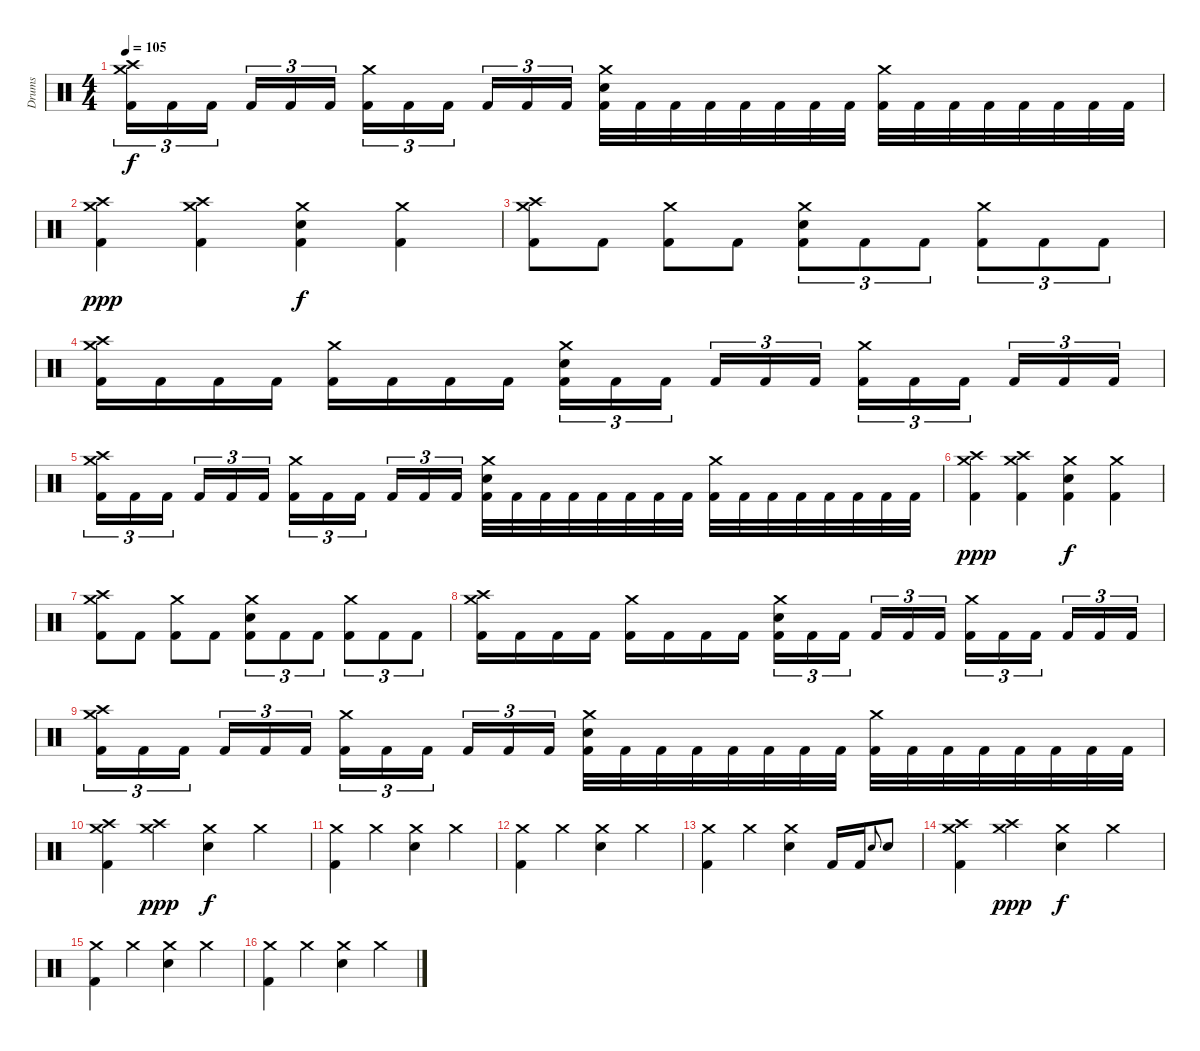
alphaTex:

\track ("Drums" "Drums") {instrument percussion}
\staff {score}
\articulation defaults
\ts (4 4)
\tempo 105
\clef neutral
\ks c
("Crash medium (hit)" "Crash high (hit)" "Kick (hit) 2").16{tu (3 2) dy f} "Kick (hit) 2".16{tu (3 2)} "Kick (hit) 2".16{tu (3 2) beam splitsecondary} "Kick (hit) 2".16{tu (3 2)} "Kick (hit) 2".16{tu (3 2)} "Kick (hit) 2".16{tu (3 2)} ("Crash medium (hit)" "Kick (hit) 2").16{tu (3 2)} "Kick (hit) 2".16{tu (3 2)} "Kick (hit) 2".16{tu (3 2) beam splitsecondary} "Kick (hit) 2".16{tu (3 2)} "Kick (hit) 2".16{tu (3 2)} "Kick (hit) 2".16{tu (3 2)} ("Crash medium (hit)" "Electric Snare (hit)" "Kick (hit) 2").32 "Kick (hit) 2".32 "Kick (hit) 2".32 "Kick (hit) 2".32 "Kick (hit) 2".32 "Kick (hit) 2".32 "Kick (hit) 2".32 "Kick (hit) 2".32 ("Crash medium (hit)" "Kick (hit) 2").32 "Kick (hit) 2".32 "Kick (hit) 2".32 "Kick (hit) 2".32 "Kick (hit) 2".32 "Kick (hit) 2".32 "Kick (hit) 2".32 "Kick (hit) 2".32 |
("Crash medium (hit)" "Crash high (hit)" "Kick (hit) 2").4{dy ppp} ("Crash medium (hit)" "Crash high (hit)" "Kick (hit) 2").4 ("Crash medium (hit)" "Electric Snare (hit)" "Kick (hit) 2").4{dy f} ("Crash medium (hit)" "Kick (hit) 2").4 |
("Crash medium (hit)" "Crash high (hit)" "Kick (hit) 2").8 "Kick (hit) 2".8 ("Crash medium (hit)" "Kick (hit) 2").8 "Kick (hit) 2".8 ("Crash medium (hit)" "Electric Snare (hit)" "Kick (hit) 2").8{tu (3 2)} "Kick (hit) 2".8{tu (3 2)} "Kick (hit) 2".8{tu (3 2)} ("Crash medium (hit)" "Kick (hit) 2").8{tu (3 2)} "Kick (hit) 2".8{tu (3 2)} "Kick (hit) 2".8{tu (3 2)} |
("Crash medium (hit)" "Crash high (hit)" "Kick (hit) 2").16 "Kick (hit) 2".16 "Kick (hit) 2".16 "Kick (hit) 2".16 ("Crash medium (hit)" "Kick (hit) 2").16 "Kick (hit) 2".16 "Kick (hit) 2".16 "Kick (hit) 2".16 ("Crash medium (hit)" "Electric Snare (hit)" "Kick (hit) 2").16{tu (3 2)} "Kick (hit) 2".16{tu (3 2)} "Kick (hit) 2".16{tu (3 2) beam splitsecondary} "Kick (hit) 2".16{tu (3 2)} "Kick (hit) 2".16{tu (3 2)} "Kick (hit) 2".16{tu (3 2)} ("Crash medium (hit)" "Kick (hit) 2").16{tu (3 2)} "Kick (hit) 2".16{tu (3 2)} "Kick (hit) 2".16{tu (3 2) beam splitsecondary} "Kick (hit) 2".16{tu (3 2)} "Kick (hit) 2".16{tu (3 2)} "Kick (hit) 2".16{tu (3 2)} |
("Crash medium (hit)" "Crash high (hit)" "Kick (hit) 2").16{tu (3 2)} "Kick (hit) 2".16{tu (3 2)} "Kick (hit) 2".16{tu (3 2) beam splitsecondary} "Kick (hit) 2".16{tu (3 2)} "Kick (hit) 2".16{tu (3 2)} "Kick (hit) 2".16{tu (3 2)} ("Crash medium (hit)" "Kick (hit) 2").16{tu (3 2)} "Kick (hit) 2".16{tu (3 2)} "Kick (hit) 2".16{tu (3 2) beam splitsecondary} "Kick (hit) 2".16{tu (3 2)} "Kick (hit) 2".16{tu (3 2)} "Kick (hit) 2".16{tu (3 2)} ("Crash medium (hit)" "Electric Snare (hit)" "Kick (hit) 2").32 "Kick (hit) 2".32 "Kick (hit) 2".32 "Kick (hit) 2".32 "Kick (hit) 2".32 "Kick (hit) 2".32 "Kick (hit) 2".32 "Kick (hit) 2".32 ("Crash medium (hit)" "Kick (hit) 2").32 "Kick (hit) 2".32 "Kick (hit) 2".32 "Kick (hit) 2".32 "Kick (hit) 2".32 "Kick (hit) 2".32 "Kick (hit) 2".32 "Kick (hit) 2".32 |
("Crash medium (hit)" "Crash high (hit)" "Kick (hit) 2").4{dy ppp} ("Crash medium (hit)" "Crash high (hit)" "Kick (hit) 2").4 ("Crash medium (hit)" "Electric Snare (hit)" "Kick (hit) 2").4{dy f} ("Crash medium (hit)" "Kick (hit) 2").4 |
("Crash medium (hit)" "Crash high (hit)" "Kick (hit) 2").8 "Kick (hit) 2".8 ("Crash medium (hit)" "Kick (hit) 2").8 "Kick (hit) 2".8 ("Crash medium (hit)" "Electric Snare (hit)" "Kick (hit) 2").8{tu (3 2)} "Kick (hit) 2".8{tu (3 2)} "Kick (hit) 2".8{tu (3 2)} ("Crash medium (hit)" "Kick (hit) 2").8{tu (3 2)} "Kick (hit) 2".8{tu (3 2)} "Kick (hit) 2".8{tu (3 2)} |
("Crash medium (hit)" "Crash high (hit)" "Kick (hit) 2").16 "Kick (hit) 2".16 "Kick (hit) 2".16 "Kick (hit) 2".16 ("Crash medium (hit)" "Kick (hit) 2").16 "Kick (hit) 2".16 "Kick (hit) 2".16 "Kick (hit) 2".16 ("Crash medium (hit)" "Electric Snare (hit)" "Kick (hit) 2").16{tu (3 2)} "Kick (hit) 2".16{tu (3 2)} "Kick (hit) 2".16{tu (3 2) beam splitsecondary} "Kick (hit) 2".16{tu (3 2)} "Kick (hit) 2".16{tu (3 2)} "Kick (hit) 2".16{tu (3 2)} ("Crash medium (hit)" "Kick (hit) 2").16{tu (3 2)} "Kick (hit) 2".16{tu (3 2)} "Kick (hit) 2".16{tu (3 2) beam splitsecondary} "Kick (hit) 2".16{tu (3 2)} "Kick (hit) 2".16{tu (3 2)} "Kick (hit) 2".16{tu (3 2)} |
("Crash medium (hit)" "Crash high (hit)" "Kick (hit) 2").16{tu (3 2)} "Kick (hit) 2".16{tu (3 2)} "Kick (hit) 2".16{tu (3 2) beam splitsecondary} "Kick (hit) 2".16{tu (3 2)} "Kick (hit) 2".16{tu (3 2)} "Kick (hit) 2".16{tu (3 2)} ("Crash medium (hit)" "Kick (hit) 2").16{tu (3 2)} "Kick (hit) 2".16{tu (3 2)} "Kick (hit) 2".16{tu (3 2) beam splitsecondary} "Kick (hit) 2".16{tu (3 2)} "Kick (hit) 2".16{tu (3 2)} "Kick (hit) 2".16{tu (3 2)} ("Crash medium (hit)" "Electric Snare (hit)" "Kick (hit) 2").32 "Kick (hit) 2".32 "Kick (hit) 2".32 "Kick (hit) 2".32 "Kick (hit) 2".32 "Kick (hit) 2".32 "Kick (hit) 2".32 "Kick (hit) 2".32 ("Crash medium (hit)" "Kick (hit) 2").32 "Kick (hit) 2".32 "Kick (hit) 2".32 "Kick (hit) 2".32 "Kick (hit) 2".32 "Kick (hit) 2".32 "Kick (hit) 2".32 "Kick (hit) 2".32 |
("Crash medium (hit)" "Crash high (hit)" "Kick (hit) 2").4 ("Crash medium (hit)" "Crash high (hit)").4{dy ppp} ("Crash medium (hit)" "Electric Snare (hit)").4{dy f} "Crash medium (hit)".4 |
("Crash medium (hit)" "Kick (hit) 2").4 "Crash medium (hit)".4 ("Crash medium (hit)" "Electric Snare (hit)").4 "Crash medium (hit)".4 |
("Crash medium (hit)" "Kick (hit) 2").4 "Crash medium (hit)".4 ("Crash medium (hit)" "Electric Snare (hit)").4 "Crash medium (hit)".4 |
("Crash medium (hit)" "Kick (hit) 2").4 "Crash medium (hit)".4 ("Crash medium (hit)" "Electric Snare (hit)").4 "Kick (hit) 2".16 "Kick (hit) 2".16 "Electric Snare (hit)".8{gr onbeat} "Electric Snare (hit)".8 |
("Crash medium (hit)" "Crash high (hit)" "Kick (hit) 2").4 ("Crash medium (hit)" "Crash high (hit)").4{dy ppp} ("Crash medium (hit)" "Electric Snare (hit)").4{dy f} "Crash medium (hit)".4 |
("Crash medium (hit)" "Kick (hit) 2").4 "Crash medium (hit)".4 ("Crash medium (hit)" "Electric Snare (hit)").4 "Crash medium (hit)".4 |
("Crash medium (hit)" "Kick (hit) 2").4 "Crash medium (hit)".4 ("Crash medium (hit)" "Electric Snare (hit)").4 "Crash medium (hit)".4
